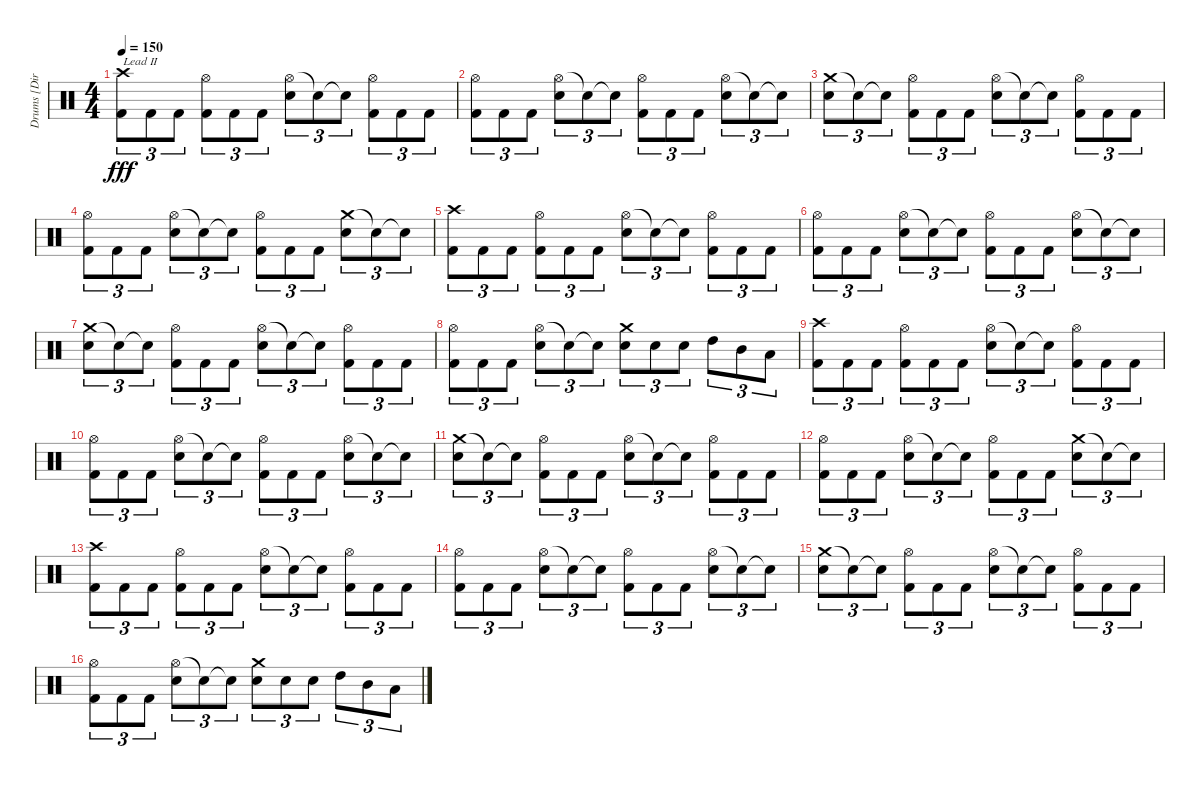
\track ("Drums [Dirge Rep]" "Drums [Dir") {instrument percussion}
\staff {score}
\articulation defaults
\ts (4 4)
\tempo 150
\clef neutral
\ks c
("Crash high (hit)" "Kick (hit) 2").8{tu (3 2) txt "Lead II" dy fff} "Kick (hit) 2".8{tu (3 2)} "Kick (hit) 2".8{tu (3 2)} ("Hi-Hat (open)" "Kick (hit) 2").8{tu (3 2)} "Kick (hit) 2".8{tu (3 2)} "Kick (hit) 2".8{tu (3 2)} ("Hi-Hat (open)" "Electric Snare (hit)").8{tu (3 2)} "Snare (hit)"{t}.8{tu (3 2)} "Snare (hit)"{t}.8{tu (3 2)} ("Hi-Hat (open)" "Kick (hit) 2").8{tu (3 2)} "Kick (hit) 2".8{tu (3 2)} "Kick (hit) 2".8{tu (3 2)} |
("Hi-Hat (open)" "Kick (hit) 2").8{tu (3 2)} "Kick (hit) 2".8{tu (3 2)} "Kick (hit) 2".8{tu (3 2)} ("Hi-Hat (open)" "Electric Snare (hit)").8{tu (3 2)} "Snare (hit)"{t}.8{tu (3 2)} "Snare (hit)"{t}.8{tu (3 2)} ("Hi-Hat (open)" "Kick (hit) 2").8{tu (3 2)} "Kick (hit) 2".8{tu (3 2)} "Kick (hit) 2".8{tu (3 2)} ("Hi-Hat (open)" "Electric Snare (hit)").8{tu (3 2)} "Snare (hit)"{t}.8{tu (3 2)} "Snare (hit)"{t}.8{tu (3 2)} |
("Crash medium (hit)" "Electric Snare (hit)").8{tu (3 2)} "Snare (hit)"{t}.8{tu (3 2)} "Snare (hit)"{t}.8{tu (3 2)} ("Hi-Hat (open)" "Kick (hit) 2").8{tu (3 2)} "Kick (hit) 2".8{tu (3 2)} "Kick (hit) 2".8{tu (3 2)} ("Hi-Hat (open)" "Electric Snare (hit)").8{tu (3 2)} "Snare (hit)"{t}.8{tu (3 2)} "Snare (hit)"{t}.8{tu (3 2)} ("Hi-Hat (open)" "Kick (hit) 2").8{tu (3 2)} "Kick (hit) 2".8{tu (3 2)} "Kick (hit) 2".8{tu (3 2)} |
("Hi-Hat (open)" "Kick (hit) 2").8{tu (3 2)} "Kick (hit) 2".8{tu (3 2)} "Kick (hit) 2".8{tu (3 2)} ("Hi-Hat (open)" "Electric Snare (hit)").8{tu (3 2)} "Snare (hit)"{t}.8{tu (3 2)} "Snare (hit)"{t}.8{tu (3 2)} ("Hi-Hat (open)" "Kick (hit) 2").8{tu (3 2)} "Kick (hit) 2".8{tu (3 2)} "Kick (hit) 2".8{tu (3 2)} ("Crash medium (hit)" "Electric Snare (hit)").8{tu (3 2)} "Snare (hit)"{t}.8{tu (3 2)} "Snare (hit)"{t}.8{tu (3 2)} |
("Crash high (hit)" "Kick (hit) 2").8{tu (3 2)} "Kick (hit) 2".8{tu (3 2)} "Kick (hit) 2".8{tu (3 2)} ("Hi-Hat (open)" "Kick (hit) 2").8{tu (3 2)} "Kick (hit) 2".8{tu (3 2)} "Kick (hit) 2".8{tu (3 2)} ("Hi-Hat (open)" "Electric Snare (hit)").8{tu (3 2)} "Snare (hit)"{t}.8{tu (3 2)} "Snare (hit)"{t}.8{tu (3 2)} ("Hi-Hat (open)" "Kick (hit) 2").8{tu (3 2)} "Kick (hit) 2".8{tu (3 2)} "Kick (hit) 2".8{tu (3 2)} |
("Hi-Hat (open)" "Kick (hit) 2").8{tu (3 2)} "Kick (hit) 2".8{tu (3 2)} "Kick (hit) 2".8{tu (3 2)} ("Hi-Hat (open)" "Electric Snare (hit)").8{tu (3 2)} "Snare (hit)"{t}.8{tu (3 2)} "Snare (hit)"{t}.8{tu (3 2)} ("Hi-Hat (open)" "Kick (hit) 2").8{tu (3 2)} "Kick (hit) 2".8{tu (3 2)} "Kick (hit) 2".8{tu (3 2)} ("Hi-Hat (open)" "Electric Snare (hit)").8{tu (3 2)} "Snare (hit)"{t}.8{tu (3 2)} "Snare (hit)"{t}.8{tu (3 2)} |
("Crash medium (hit)" "Electric Snare (hit)").8{tu (3 2)} "Snare (hit)"{t}.8{tu (3 2)} "Snare (hit)"{t}.8{tu (3 2)} ("Hi-Hat (open)" "Kick (hit) 2").8{tu (3 2)} "Kick (hit) 2".8{tu (3 2)} "Kick (hit) 2".8{tu (3 2)} ("Hi-Hat (open)" "Electric Snare (hit)").8{tu (3 2)} "Snare (hit)"{t}.8{tu (3 2)} "Snare (hit)"{t}.8{tu (3 2)} ("Hi-Hat (open)" "Kick (hit) 2").8{tu (3 2)} "Kick (hit) 2".8{tu (3 2)} "Kick (hit) 2".8{tu (3 2)} |
("Hi-Hat (open)" "Kick (hit) 2").8{tu (3 2)} "Kick (hit) 2".8{tu (3 2)} "Kick (hit) 2".8{tu (3 2)} ("Hi-Hat (open)" "Electric Snare (hit)").8{tu (3 2)} "Snare (hit)"{t}.8{tu (3 2)} "Snare (hit)"{t}.8{tu (3 2)} ("Crash medium (hit)" "Electric Snare (hit)").8{tu (3 2)} "Electric Snare (hit)".8{tu (3 2)} "Electric Snare (hit)".8{tu (3 2)} "High Tom (hit)".8{tu (3 2)} "Mid Tom (hit)".8{tu (3 2)} "Low Tom (hit)".8{tu (3 2)} |
("Crash high (hit)" "Kick (hit) 2").8{tu (3 2)} "Kick (hit) 2".8{tu (3 2)} "Kick (hit) 2".8{tu (3 2)} ("Hi-Hat (open)" "Kick (hit) 2").8{tu (3 2)} "Kick (hit) 2".8{tu (3 2)} "Kick (hit) 2".8{tu (3 2)} ("Hi-Hat (open)" "Electric Snare (hit)").8{tu (3 2)} "Snare (hit)"{t}.8{tu (3 2)} "Snare (hit)"{t}.8{tu (3 2)} ("Hi-Hat (open)" "Kick (hit) 2").8{tu (3 2)} "Kick (hit) 2".8{tu (3 2)} "Kick (hit) 2".8{tu (3 2)} |
("Hi-Hat (open)" "Kick (hit) 2").8{tu (3 2)} "Kick (hit) 2".8{tu (3 2)} "Kick (hit) 2".8{tu (3 2)} ("Hi-Hat (open)" "Electric Snare (hit)").8{tu (3 2)} "Snare (hit)"{t}.8{tu (3 2)} "Snare (hit)"{t}.8{tu (3 2)} ("Hi-Hat (open)" "Kick (hit) 2").8{tu (3 2)} "Kick (hit) 2".8{tu (3 2)} "Kick (hit) 2".8{tu (3 2)} ("Hi-Hat (open)" "Electric Snare (hit)").8{tu (3 2)} "Snare (hit)"{t}.8{tu (3 2)} "Snare (hit)"{t}.8{tu (3 2)} |
("Crash medium (hit)" "Electric Snare (hit)").8{tu (3 2)} "Snare (hit)"{t}.8{tu (3 2)} "Snare (hit)"{t}.8{tu (3 2)} ("Hi-Hat (open)" "Kick (hit) 2").8{tu (3 2)} "Kick (hit) 2".8{tu (3 2)} "Kick (hit) 2".8{tu (3 2)} ("Hi-Hat (open)" "Electric Snare (hit)").8{tu (3 2)} "Snare (hit)"{t}.8{tu (3 2)} "Snare (hit)"{t}.8{tu (3 2)} ("Hi-Hat (open)" "Kick (hit) 2").8{tu (3 2)} "Kick (hit) 2".8{tu (3 2)} "Kick (hit) 2".8{tu (3 2)} |
("Hi-Hat (open)" "Kick (hit) 2").8{tu (3 2)} "Kick (hit) 2".8{tu (3 2)} "Kick (hit) 2".8{tu (3 2)} ("Hi-Hat (open)" "Electric Snare (hit)").8{tu (3 2)} "Snare (hit)"{t}.8{tu (3 2)} "Snare (hit)"{t}.8{tu (3 2)} ("Hi-Hat (open)" "Kick (hit) 2").8{tu (3 2)} "Kick (hit) 2".8{tu (3 2)} "Kick (hit) 2".8{tu (3 2)} ("Crash medium (hit)" "Electric Snare (hit)").8{tu (3 2)} "Snare (hit)"{t}.8{tu (3 2)} "Snare (hit)"{t}.8{tu (3 2)} |
("Crash high (hit)" "Kick (hit) 2").8{tu (3 2)} "Kick (hit) 2".8{tu (3 2)} "Kick (hit) 2".8{tu (3 2)} ("Hi-Hat (open)" "Kick (hit) 2").8{tu (3 2)} "Kick (hit) 2".8{tu (3 2)} "Kick (hit) 2".8{tu (3 2)} ("Hi-Hat (open)" "Electric Snare (hit)").8{tu (3 2)} "Snare (hit)"{t}.8{tu (3 2)} "Snare (hit)"{t}.8{tu (3 2)} ("Hi-Hat (open)" "Kick (hit) 2").8{tu (3 2)} "Kick (hit) 2".8{tu (3 2)} "Kick (hit) 2".8{tu (3 2)} |
("Hi-Hat (open)" "Kick (hit) 2").8{tu (3 2)} "Kick (hit) 2".8{tu (3 2)} "Kick (hit) 2".8{tu (3 2)} ("Hi-Hat (open)" "Electric Snare (hit)").8{tu (3 2)} "Snare (hit)"{t}.8{tu (3 2)} "Snare (hit)"{t}.8{tu (3 2)} ("Hi-Hat (open)" "Kick (hit) 2").8{tu (3 2)} "Kick (hit) 2".8{tu (3 2)} "Kick (hit) 2".8{tu (3 2)} ("Hi-Hat (open)" "Electric Snare (hit)").8{tu (3 2)} "Snare (hit)"{t}.8{tu (3 2)} "Snare (hit)"{t}.8{tu (3 2)} |
("Crash medium (hit)" "Electric Snare (hit)").8{tu (3 2)} "Snare (hit)"{t}.8{tu (3 2)} "Snare (hit)"{t}.8{tu (3 2)} ("Hi-Hat (open)" "Kick (hit) 2").8{tu (3 2)} "Kick (hit) 2".8{tu (3 2)} "Kick (hit) 2".8{tu (3 2)} ("Hi-Hat (open)" "Electric Snare (hit)").8{tu (3 2)} "Snare (hit)"{t}.8{tu (3 2)} "Snare (hit)"{t}.8{tu (3 2)} ("Hi-Hat (open)" "Kick (hit) 2").8{tu (3 2)} "Kick (hit) 2".8{tu (3 2)} "Kick (hit) 2".8{tu (3 2)} |
("Hi-Hat (open)" "Kick (hit) 2").8{tu (3 2)} "Kick (hit) 2".8{tu (3 2)} "Kick (hit) 2".8{tu (3 2)} ("Hi-Hat (open)" "Electric Snare (hit)").8{tu (3 2)} "Snare (hit)"{t}.8{tu (3 2)} "Snare (hit)"{t}.8{tu (3 2)} ("Crash medium (hit)" "Electric Snare (hit)").8{tu (3 2)} "Electric Snare (hit)".8{tu (3 2)} "Electric Snare (hit)".8{tu (3 2)} "High Tom (hit)".8{tu (3 2)} "Mid Tom (hit)".8{tu (3 2)} "Low Tom (hit)".8{tu (3 2)}
